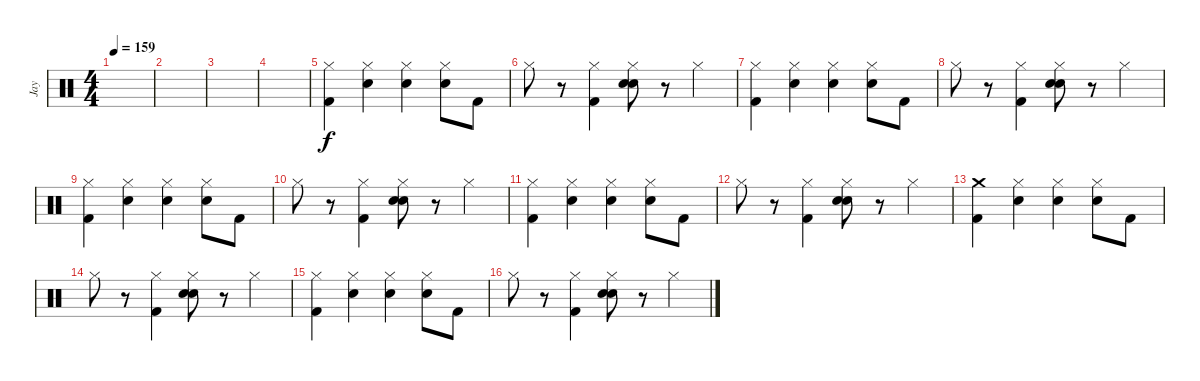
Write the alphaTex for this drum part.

\track ("Jay" "Jay") {instrument percussion}
\staff {score}
\articulation defaults
\ts (4 4)
\tempo 159
\clef neutral
\ks c
|
|
|
|
("Hi-Hat (closed)" "Kick (hit) 2").4 ("Snare (hit)" "Hi-Hat (closed)").4 ("Hi-Hat (closed)" "Electric Snare (hit)").4 ("Snare (hit)" "Hi-Hat (closed)").8 "Kick (hit) 2".8 |
"Hi-Hat (closed)".8 r.8 ("Hi-Hat (closed)" "Kick (hit) 2").4 ("Snare (hit)" "Hi-Hat (closed)" "Electric Snare (hit)").8 r.8 "Hi-Hat (closed)".4 |
("Hi-Hat (closed)" "Kick (hit) 2").4 ("Snare (hit)" "Hi-Hat (closed)").4 ("Hi-Hat (closed)" "Electric Snare (hit)").4 ("Snare (hit)" "Hi-Hat (closed)").8 "Kick (hit) 2".8 |
"Hi-Hat (closed)".8 r.8 ("Hi-Hat (closed)" "Kick (hit) 2").4 ("Snare (hit)" "Hi-Hat (closed)" "Electric Snare (hit)").8 r.8 "Hi-Hat (closed)".4 |
("Hi-Hat (closed)" "Kick (hit) 2").4 ("Snare (hit)" "Hi-Hat (closed)").4 ("Hi-Hat (closed)" "Electric Snare (hit)").4 ("Snare (hit)" "Hi-Hat (closed)").8 "Kick (hit) 2".8 |
"Hi-Hat (closed)".8 r.8 ("Hi-Hat (closed)" "Kick (hit) 2").4 ("Snare (hit)" "Hi-Hat (closed)" "Electric Snare (hit)").8 r.8 "Hi-Hat (closed)".4 |
("Hi-Hat (closed)" "Kick (hit) 2").4 ("Snare (hit)" "Hi-Hat (closed)").4 ("Hi-Hat (closed)" "Electric Snare (hit)").4 ("Snare (hit)" "Hi-Hat (closed)").8 "Kick (hit) 2".8 |
"Hi-Hat (closed)".8 r.8 ("Hi-Hat (closed)" "Kick (hit) 2").4 ("Snare (hit)" "Hi-Hat (closed)" "Electric Snare (hit)").8 r.8 "Hi-Hat (closed)".4 |
("Crash medium (hit)" "Kick (hit) 2").4 ("Snare (hit)" "Hi-Hat (closed)").4 ("Hi-Hat (closed)" "Electric Snare (hit)").4 ("Snare (hit)" "Hi-Hat (closed)").8 "Kick (hit) 2".8 |
"Hi-Hat (closed)".8 r.8 ("Hi-Hat (closed)" "Kick (hit) 2").4 ("Snare (hit)" "Hi-Hat (closed)" "Electric Snare (hit)").8 r.8 "Hi-Hat (closed)".4 |
("Hi-Hat (closed)" "Kick (hit) 2").4 ("Snare (hit)" "Hi-Hat (closed)").4 ("Hi-Hat (closed)" "Electric Snare (hit)").4 ("Snare (hit)" "Hi-Hat (closed)").8 "Kick (hit) 2".8 |
"Hi-Hat (closed)".8 r.8 ("Hi-Hat (closed)" "Kick (hit) 2").4 ("Snare (hit)" "Hi-Hat (closed)" "Electric Snare (hit)").8 r.8 "Hi-Hat (closed)".4
